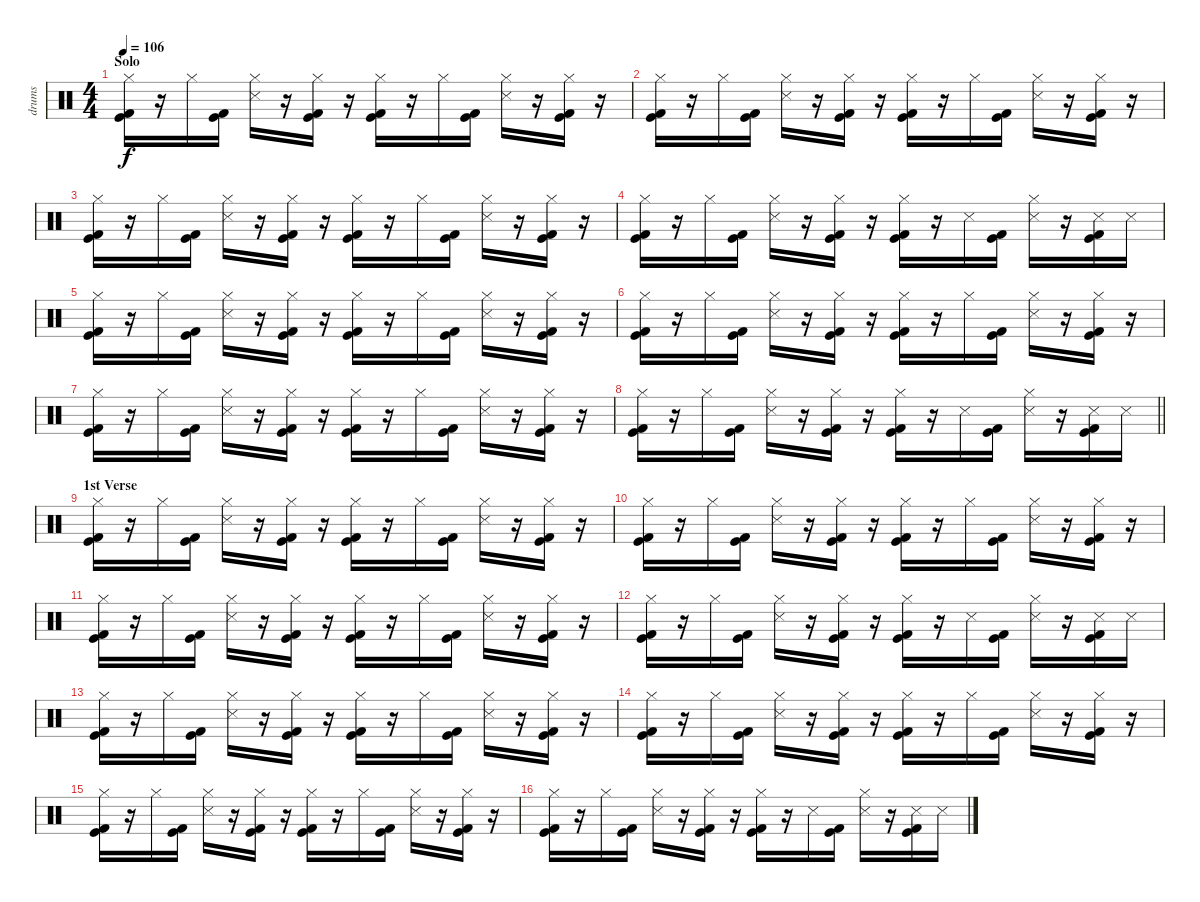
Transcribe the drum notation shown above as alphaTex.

\track ("drums" "drums") {instrument percussion}
\staff {score}
\articulation defaults
\ts (4 4)
\section ("" "Solo")
\tempo 106
\clef neutral
\ks c
("Hi-Hat (closed)" "Kick (hit) 2" "Kick (hit)").16{dy f} r.16 "Hi-Hat (closed)".16 ("Kick (hit) 2" "Kick (hit)").16 ("Hi-Hat (closed)" "Snare (side stick) 3").16 r.16 ("Hi-Hat (closed)" "Kick (hit) 2" "Kick (hit)").16 r.16 ("Hi-Hat (closed)" "Kick (hit) 2" "Kick (hit)").16 r.16 "Hi-Hat (closed)".16 ("Kick (hit) 2" "Kick (hit)").16 ("Hi-Hat (closed)" "Snare (side stick) 3").16 r.16 ("Hi-Hat (closed)" "Kick (hit) 2" "Kick (hit)").16 r.16 |
("Hi-Hat (closed)" "Kick (hit) 2" "Kick (hit)").16 r.16 "Hi-Hat (closed)".16 ("Kick (hit) 2" "Kick (hit)").16 ("Hi-Hat (closed)" "Snare (side stick) 3").16 r.16 ("Hi-Hat (closed)" "Kick (hit) 2" "Kick (hit)").16 r.16 ("Hi-Hat (closed)" "Kick (hit) 2" "Kick (hit)").16 r.16 "Hi-Hat (closed)".16 ("Kick (hit) 2" "Kick (hit)").16 ("Hi-Hat (closed)" "Snare (side stick) 3").16 r.16 ("Hi-Hat (closed)" "Kick (hit) 2" "Kick (hit)").16 r.16 |
("Hi-Hat (closed)" "Kick (hit) 2" "Kick (hit)").16 r.16 "Hi-Hat (closed)".16 ("Kick (hit) 2" "Kick (hit)").16 ("Hi-Hat (closed)" "Snare (side stick) 3").16 r.16 ("Hi-Hat (closed)" "Kick (hit) 2" "Kick (hit)").16 r.16 ("Hi-Hat (closed)" "Kick (hit) 2" "Kick (hit)").16 r.16 "Hi-Hat (closed)".16 ("Kick (hit) 2" "Kick (hit)").16 ("Hi-Hat (closed)" "Snare (side stick) 3").16 r.16 ("Hi-Hat (closed)" "Kick (hit) 2" "Kick (hit)").16 r.16 |
("Hi-Hat (closed)" "Kick (hit) 2" "Kick (hit)").16 r.16 "Hi-Hat (closed)".16 ("Kick (hit) 2" "Kick (hit)").16 ("Hi-Hat (closed)" "Snare (side stick) 3").16 r.16 ("Hi-Hat (closed)" "Kick (hit) 2" "Kick (hit)").16 r.16 ("Hi-Hat (closed)" "Kick (hit) 2" "Kick (hit)").16 r.16 "Snare (side stick) 3".16 ("Kick (hit) 2" "Kick (hit)").16 ("Hi-Hat (closed)" "Snare (side stick) 3").16 r.16 ("Snare (side stick) 3" "Kick (hit) 2" "Kick (hit)").16 "Snare (side stick) 3".16 |
("Hi-Hat (closed)" "Kick (hit) 2" "Kick (hit)").16 r.16 "Hi-Hat (closed)".16 ("Kick (hit) 2" "Kick (hit)").16 ("Hi-Hat (closed)" "Snare (side stick) 3").16 r.16 ("Hi-Hat (closed)" "Kick (hit) 2" "Kick (hit)").16 r.16 ("Hi-Hat (closed)" "Kick (hit) 2" "Kick (hit)").16 r.16 "Hi-Hat (closed)".16 ("Kick (hit) 2" "Kick (hit)").16 ("Hi-Hat (closed)" "Snare (side stick) 3").16 r.16 ("Hi-Hat (closed)" "Kick (hit) 2" "Kick (hit)").16 r.16 |
("Hi-Hat (closed)" "Kick (hit) 2" "Kick (hit)").16 r.16 "Hi-Hat (closed)".16 ("Kick (hit) 2" "Kick (hit)").16 ("Hi-Hat (closed)" "Snare (side stick) 3").16 r.16 ("Hi-Hat (closed)" "Kick (hit) 2" "Kick (hit)").16 r.16 ("Hi-Hat (closed)" "Kick (hit) 2" "Kick (hit)").16 r.16 "Hi-Hat (closed)".16 ("Kick (hit) 2" "Kick (hit)").16 ("Hi-Hat (closed)" "Snare (side stick) 3").16 r.16 ("Hi-Hat (closed)" "Kick (hit) 2" "Kick (hit)").16 r.16 |
("Hi-Hat (closed)" "Kick (hit) 2" "Kick (hit)").16 r.16 "Hi-Hat (closed)".16 ("Kick (hit) 2" "Kick (hit)").16 ("Hi-Hat (closed)" "Snare (side stick) 3").16 r.16 ("Hi-Hat (closed)" "Kick (hit) 2" "Kick (hit)").16 r.16 ("Hi-Hat (closed)" "Kick (hit) 2" "Kick (hit)").16 r.16 "Hi-Hat (closed)".16 ("Kick (hit) 2" "Kick (hit)").16 ("Hi-Hat (closed)" "Snare (side stick) 3").16 r.16 ("Hi-Hat (closed)" "Kick (hit) 2" "Kick (hit)").16 r.16 |
\barLineRight lightlight
("Hi-Hat (closed)" "Kick (hit) 2" "Kick (hit)").16 r.16 "Hi-Hat (closed)".16 ("Kick (hit) 2" "Kick (hit)").16 ("Hi-Hat (closed)" "Snare (side stick) 3").16 r.16 ("Hi-Hat (closed)" "Kick (hit) 2" "Kick (hit)").16 r.16 ("Hi-Hat (closed)" "Kick (hit) 2" "Kick (hit)").16 r.16 "Snare (side stick) 3".16 ("Kick (hit) 2" "Kick (hit)").16 ("Hi-Hat (closed)" "Snare (side stick) 3").16 r.16 ("Snare (side stick) 3" "Kick (hit) 2" "Kick (hit)").16 "Snare (side stick) 3".16 |
\section ("" "1st Verse")
("Hi-Hat (closed)" "Kick (hit) 2" "Kick (hit)").16 r.16 "Hi-Hat (closed)".16 ("Kick (hit) 2" "Kick (hit)").16 ("Hi-Hat (closed)" "Snare (side stick) 3").16 r.16 ("Hi-Hat (closed)" "Kick (hit) 2" "Kick (hit)").16 r.16 ("Hi-Hat (closed)" "Kick (hit) 2" "Kick (hit)").16 r.16 "Hi-Hat (closed)".16 ("Kick (hit) 2" "Kick (hit)").16 ("Hi-Hat (closed)" "Snare (side stick) 3").16 r.16 ("Hi-Hat (closed)" "Kick (hit) 2" "Kick (hit)").16 r.16 |
("Hi-Hat (closed)" "Kick (hit) 2" "Kick (hit)").16 r.16 "Hi-Hat (closed)".16 ("Kick (hit) 2" "Kick (hit)").16 ("Hi-Hat (closed)" "Snare (side stick) 3").16 r.16 ("Hi-Hat (closed)" "Kick (hit) 2" "Kick (hit)").16 r.16 ("Hi-Hat (closed)" "Kick (hit) 2" "Kick (hit)").16 r.16 "Hi-Hat (closed)".16 ("Kick (hit) 2" "Kick (hit)").16 ("Hi-Hat (closed)" "Snare (side stick) 3").16 r.16 ("Hi-Hat (closed)" "Kick (hit) 2" "Kick (hit)").16 r.16 |
("Hi-Hat (closed)" "Kick (hit) 2" "Kick (hit)").16 r.16 "Hi-Hat (closed)".16 ("Kick (hit) 2" "Kick (hit)").16 ("Hi-Hat (closed)" "Snare (side stick) 3").16 r.16 ("Hi-Hat (closed)" "Kick (hit) 2" "Kick (hit)").16 r.16 ("Hi-Hat (closed)" "Kick (hit) 2" "Kick (hit)").16 r.16 "Hi-Hat (closed)".16 ("Kick (hit) 2" "Kick (hit)").16 ("Hi-Hat (closed)" "Snare (side stick) 3").16 r.16 ("Hi-Hat (closed)" "Kick (hit) 2" "Kick (hit)").16 r.16 |
("Hi-Hat (closed)" "Kick (hit) 2" "Kick (hit)").16 r.16 "Hi-Hat (closed)".16 ("Kick (hit) 2" "Kick (hit)").16 ("Hi-Hat (closed)" "Snare (side stick) 3").16 r.16 ("Hi-Hat (closed)" "Kick (hit) 2" "Kick (hit)").16 r.16 ("Hi-Hat (closed)" "Kick (hit) 2" "Kick (hit)").16 r.16 "Snare (side stick) 3".16 ("Kick (hit) 2" "Kick (hit)").16 ("Hi-Hat (closed)" "Snare (side stick) 3").16 r.16 ("Snare (side stick) 3" "Kick (hit) 2" "Kick (hit)").16 "Snare (side stick) 3".16 |
("Hi-Hat (closed)" "Kick (hit) 2" "Kick (hit)").16 r.16 "Hi-Hat (closed)".16 ("Kick (hit) 2" "Kick (hit)").16 ("Hi-Hat (closed)" "Snare (side stick) 3").16 r.16 ("Hi-Hat (closed)" "Kick (hit) 2" "Kick (hit)").16 r.16 ("Hi-Hat (closed)" "Kick (hit) 2" "Kick (hit)").16 r.16 "Hi-Hat (closed)".16 ("Kick (hit) 2" "Kick (hit)").16 ("Hi-Hat (closed)" "Snare (side stick) 3").16 r.16 ("Hi-Hat (closed)" "Kick (hit) 2" "Kick (hit)").16 r.16 |
("Hi-Hat (closed)" "Kick (hit) 2" "Kick (hit)").16 r.16 "Hi-Hat (closed)".16 ("Kick (hit) 2" "Kick (hit)").16 ("Hi-Hat (closed)" "Snare (side stick) 3").16 r.16 ("Hi-Hat (closed)" "Kick (hit) 2" "Kick (hit)").16 r.16 ("Hi-Hat (closed)" "Kick (hit) 2" "Kick (hit)").16 r.16 "Hi-Hat (closed)".16 ("Kick (hit) 2" "Kick (hit)").16 ("Hi-Hat (closed)" "Snare (side stick) 3").16 r.16 ("Hi-Hat (closed)" "Kick (hit) 2" "Kick (hit)").16 r.16 |
("Hi-Hat (closed)" "Kick (hit) 2" "Kick (hit)").16 r.16 "Hi-Hat (closed)".16 ("Kick (hit) 2" "Kick (hit)").16 ("Hi-Hat (closed)" "Snare (side stick) 3").16 r.16 ("Hi-Hat (closed)" "Kick (hit) 2" "Kick (hit)").16 r.16 ("Hi-Hat (closed)" "Kick (hit) 2" "Kick (hit)").16 r.16 "Hi-Hat (closed)".16 ("Kick (hit) 2" "Kick (hit)").16 ("Hi-Hat (closed)" "Snare (side stick) 3").16 r.16 ("Hi-Hat (closed)" "Kick (hit) 2" "Kick (hit)").16 r.16 |
("Hi-Hat (closed)" "Kick (hit) 2" "Kick (hit)").16 r.16 "Hi-Hat (closed)".16 ("Kick (hit) 2" "Kick (hit)").16 ("Hi-Hat (closed)" "Snare (side stick) 3").16 r.16 ("Hi-Hat (closed)" "Kick (hit) 2" "Kick (hit)").16 r.16 ("Hi-Hat (closed)" "Kick (hit) 2" "Kick (hit)").16 r.16 "Snare (side stick) 3".16 ("Kick (hit) 2" "Kick (hit)").16 ("Hi-Hat (closed)" "Snare (side stick) 3").16 r.16 ("Snare (side stick) 3" "Kick (hit) 2" "Kick (hit)").16 "Snare (side stick) 3".16
